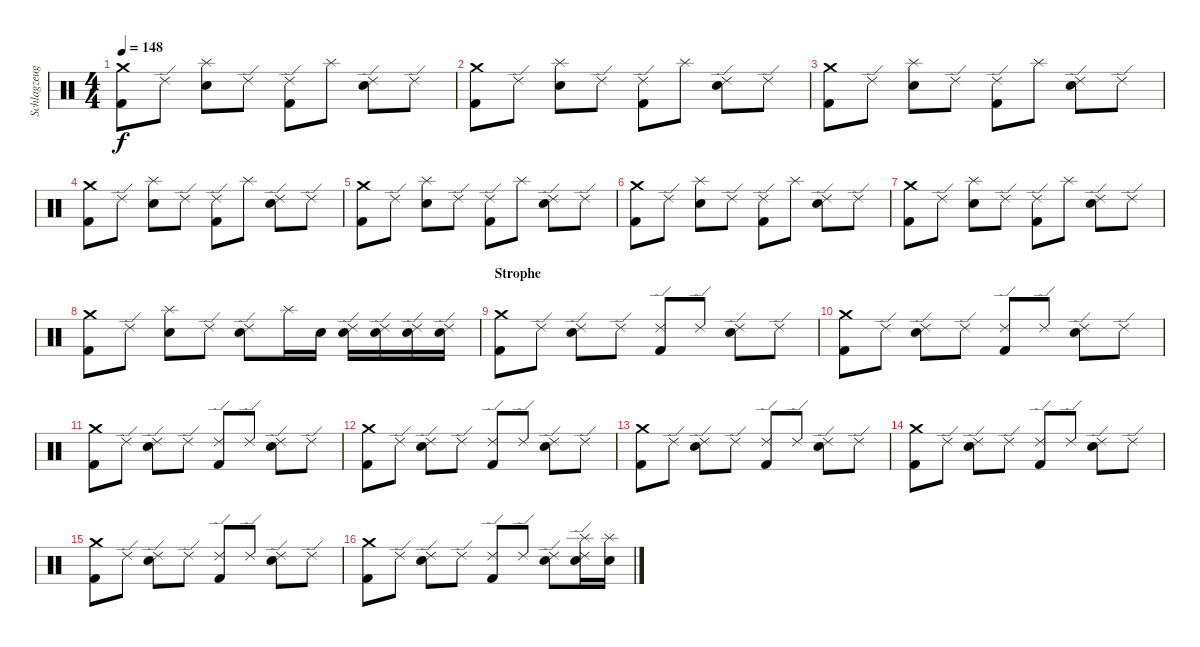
\track ("Schlagzeug" "Schlagzeug") {instrument percussion}
\staff {score}
\articulation defaults
\ts (4 4)
\tempo 148
\clef neutral
\ks c
("Crash medium (hit)" "Kick (hit) 2").8{dy f} "Ride (edge) 2".8 ("Splash (hit)" "Snare (hit) 2").8 "Ride (edge) 2".8 ("Ride (edge) 2" "Kick (hit) 2").8 "Splash (hit)".8 ("Ride (edge) 2" "Snare (hit) 2").8 "Ride (edge) 2".8 |
("Crash medium (hit)" "Kick (hit) 2").8 "Ride (edge) 2".8 ("Splash (hit)" "Snare (hit) 2").8 "Ride (edge) 2".8 ("Ride (edge) 2" "Kick (hit) 2").8 "Splash (hit)".8 ("Ride (edge) 2" "Snare (hit) 2").8 "Ride (edge) 2".8 |
("Crash medium (hit)" "Kick (hit) 2").8 "Ride (edge) 2".8 ("Splash (hit)" "Snare (hit) 2").8 "Ride (edge) 2".8 ("Ride (edge) 2" "Kick (hit) 2").8 "Splash (hit)".8 ("Ride (edge) 2" "Snare (hit) 2").8 "Ride (edge) 2".8 |
("Crash medium (hit)" "Kick (hit) 2").8 "Ride (edge) 2".8 ("Splash (hit)" "Snare (hit) 2").8 "Ride (edge) 2".8 ("Ride (edge) 2" "Kick (hit) 2").8 "Splash (hit)".8 ("Ride (edge) 2" "Snare (hit) 2").8 "Ride (edge) 2".8 |
("Crash medium (hit)" "Kick (hit) 2").8 "Ride (edge) 2".8 ("Splash (hit)" "Snare (hit) 2").8 "Ride (edge) 2".8 ("Ride (edge) 2" "Kick (hit) 2").8 "Splash (hit)".8 ("Ride (edge) 2" "Snare (hit) 2").8 "Ride (edge) 2".8 |
("Crash medium (hit)" "Kick (hit) 2").8 "Ride (edge) 2".8 ("Splash (hit)" "Snare (hit) 2").8 "Ride (edge) 2".8 ("Ride (edge) 2" "Kick (hit) 2").8 "Splash (hit)".8 ("Ride (edge) 2" "Snare (hit) 2").8 "Ride (edge) 2".8 |
("Crash medium (hit)" "Kick (hit) 2").8 "Ride (edge) 2".8 ("Splash (hit)" "Snare (hit) 2").8 "Ride (edge) 2".8 ("Ride (edge) 2" "Kick (hit) 2").8 "Splash (hit)".8 ("Ride (edge) 2" "Snare (hit) 2").8 "Ride (edge) 2".8 |
("Crash medium (hit)" "Kick (hit) 2").8 "Ride (edge) 2".8 ("Splash (hit)" "Snare (hit) 2").8 "Ride (edge) 2".8 ("Snare (hit) 2" "Ride (edge) 2").8 "Splash (hit)".16 "Snare (hit) 2".16 ("Snare (hit) 2" "Ride (edge) 2").16 ("Ride (edge) 2" "Snare (hit) 2").16 ("Snare (hit) 2" "Ride (edge) 2").16 ("Ride (edge) 2" "Snare (hit) 2").16 |
\section ("" "Strophe")
("Crash medium (hit)" "Kick (hit) 2").8 "Ride (edge) 2".8 ("Ride (edge) 2" "Snare (hit) 2").8 "Ride (edge) 2".8 ("Ride (edge) 2" "Kick (hit) 2").8 "Ride (edge) 2".8 ("Ride (edge) 2" "Snare (hit) 2").8 "Ride (edge) 2".8 |
("Crash medium (hit)" "Kick (hit) 2").8 "Ride (edge) 2".8 ("Ride (edge) 2" "Snare (hit) 2").8 "Ride (edge) 2".8 ("Ride (edge) 2" "Kick (hit) 2").8 "Ride (edge) 2".8 ("Ride (edge) 2" "Snare (hit) 2").8 "Ride (edge) 2".8 |
("Crash medium (hit)" "Kick (hit) 2").8 "Ride (edge) 2".8 ("Ride (edge) 2" "Snare (hit) 2").8 "Ride (edge) 2".8 ("Ride (edge) 2" "Kick (hit) 2").8 "Ride (edge) 2".8 ("Ride (edge) 2" "Snare (hit) 2").8 "Ride (edge) 2".8 |
("Crash medium (hit)" "Kick (hit) 2").8 "Ride (edge) 2".8 ("Ride (edge) 2" "Snare (hit) 2").8 "Ride (edge) 2".8 ("Ride (edge) 2" "Kick (hit) 2").8 "Ride (edge) 2".8 ("Ride (edge) 2" "Snare (hit) 2").8 "Ride (edge) 2".8 |
("Crash medium (hit)" "Kick (hit) 2").8 "Ride (edge) 2".8 ("Ride (edge) 2" "Snare (hit) 2").8 "Ride (edge) 2".8 ("Ride (edge) 2" "Kick (hit) 2").8 "Ride (edge) 2".8 ("Ride (edge) 2" "Snare (hit) 2").8 "Ride (edge) 2".8 |
("Crash medium (hit)" "Kick (hit) 2").8 "Ride (edge) 2".8 ("Ride (edge) 2" "Snare (hit) 2").8 "Ride (edge) 2".8 ("Ride (edge) 2" "Kick (hit) 2").8 "Ride (edge) 2".8 ("Ride (edge) 2" "Snare (hit) 2").8 "Ride (edge) 2".8 |
("Crash medium (hit)" "Kick (hit) 2").8 "Ride (edge) 2".8 ("Ride (edge) 2" "Snare (hit) 2").8 "Ride (edge) 2".8 ("Ride (edge) 2" "Kick (hit) 2").8 "Ride (edge) 2".8 ("Ride (edge) 2" "Snare (hit) 2").8 "Ride (edge) 2".8 |
("Crash medium (hit)" "Kick (hit) 2").8 "Ride (edge) 2".8 ("Ride (edge) 2" "Snare (hit) 2").8 "Ride (edge) 2".8 ("Ride (edge) 2" "Kick (hit) 2").8 "Ride (edge) 2".8 ("Ride (edge) 2" "Snare (hit) 2").8 ("Splash (hit)" "Snare (hit) 2" "Ride (edge) 2").16 ("Splash (hit)" "Snare (hit) 2").16
